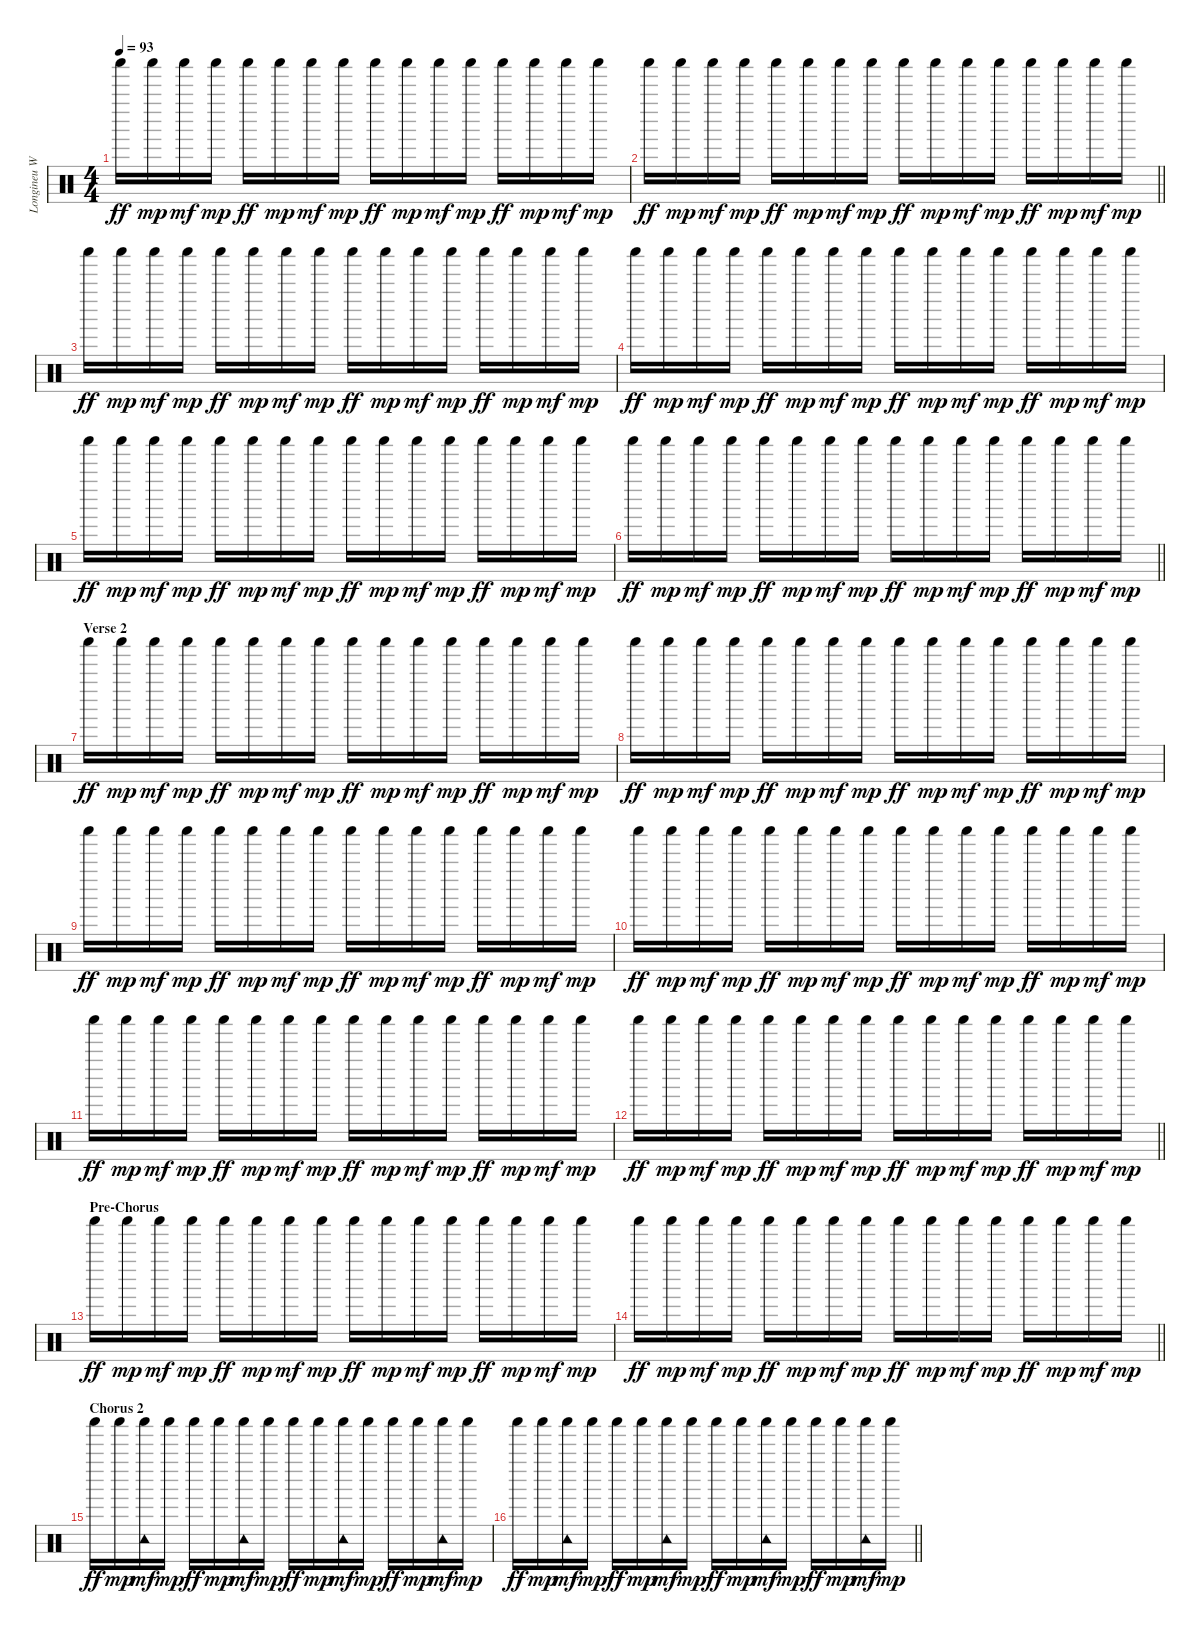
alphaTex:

\track ("Longineu W. Parsons |||" "Longineu W") {instrument percussion}
\staff {score}
\articulation defaults
\ts (4 4)
\tempo 93
\clef neutral
\ks c "Shaker (hit)".16{dy ff} "Shaker (hit)".16{dy mp} "Shaker (hit)".16{dy mf} "Shaker (hit)".16{dy mp} "Shaker (hit)".16{dy ff} "Shaker (hit)".16{dy mp} "Shaker (hit)".16{dy mf} "Shaker (hit)".16{dy mp} "Shaker (hit)".16{dy ff} "Shaker (hit)".16{dy mp} "Shaker (hit)".16{dy mf} "Shaker (hit)".16{dy mp} "Shaker (hit)".16{dy ff} "Shaker (hit)".16{dy mp} "Shaker (hit)".16{dy mf} "Shaker (hit)".16{dy mp}
|
\barLineRight lightlight "Shaker (hit)".16{dy ff} "Shaker (hit)".16{dy mp} "Shaker (hit)".16{dy mf} "Shaker (hit)".16{dy mp} "Shaker (hit)".16{dy ff} "Shaker (hit)".16{dy mp} "Shaker (hit)".16{dy mf} "Shaker (hit)".16{dy mp} "Shaker (hit)".16{dy ff} "Shaker (hit)".16{dy mp} "Shaker (hit)".16{dy mf} "Shaker (hit)".16{dy mp} "Shaker (hit)".16{dy ff} "Shaker (hit)".16{dy mp} "Shaker (hit)".16{dy mf} "Shaker (hit)".16{dy mp}
|
"Shaker (hit)".16{dy ff} "Shaker (hit)".16{dy mp} "Shaker (hit)".16{dy mf} "Shaker (hit)".16{dy mp} "Shaker (hit)".16{dy ff} "Shaker (hit)".16{dy mp} "Shaker (hit)".16{dy mf} "Shaker (hit)".16{dy mp} "Shaker (hit)".16{dy ff} "Shaker (hit)".16{dy mp} "Shaker (hit)".16{dy mf} "Shaker (hit)".16{dy mp} "Shaker (hit)".16{dy ff} "Shaker (hit)".16{dy mp} "Shaker (hit)".16{dy mf} "Shaker (hit)".16{dy mp} |
"Shaker (hit)".16{dy ff} "Shaker (hit)".16{dy mp} "Shaker (hit)".16{dy mf} "Shaker (hit)".16{dy mp} "Shaker (hit)".16{dy ff} "Shaker (hit)".16{dy mp} "Shaker (hit)".16{dy mf} "Shaker (hit)".16{dy mp} "Shaker (hit)".16{dy ff} "Shaker (hit)".16{dy mp} "Shaker (hit)".16{dy mf} "Shaker (hit)".16{dy mp} "Shaker (hit)".16{dy ff} "Shaker (hit)".16{dy mp} "Shaker (hit)".16{dy mf} "Shaker (hit)".16{dy mp} |
"Shaker (hit)".16{dy ff} "Shaker (hit)".16{dy mp} "Shaker (hit)".16{dy mf} "Shaker (hit)".16{dy mp} "Shaker (hit)".16{dy ff} "Shaker (hit)".16{dy mp} "Shaker (hit)".16{dy mf} "Shaker (hit)".16{dy mp} "Shaker (hit)".16{dy ff} "Shaker (hit)".16{dy mp} "Shaker (hit)".16{dy mf} "Shaker (hit)".16{dy mp} "Shaker (hit)".16{dy ff} "Shaker (hit)".16{dy mp} "Shaker (hit)".16{dy mf} "Shaker (hit)".16{dy mp} |
\barLineRight lightlight "Shaker (hit)".16{dy ff} "Shaker (hit)".16{dy mp} "Shaker (hit)".16{dy mf} "Shaker (hit)".16{dy mp} "Shaker (hit)".16{dy ff} "Shaker (hit)".16{dy mp} "Shaker (hit)".16{dy mf} "Shaker (hit)".16{dy mp} "Shaker (hit)".16{dy ff} "Shaker (hit)".16{dy mp} "Shaker (hit)".16{dy mf} "Shaker (hit)".16{dy mp} "Shaker (hit)".16{dy ff} "Shaker (hit)".16{dy mp} "Shaker (hit)".16{dy mf} "Shaker (hit)".16{dy mp}
|
\section ("" "Verse 2")
"Shaker (hit)".16{dy ff} "Shaker (hit)".16{dy mp} "Shaker (hit)".16{dy mf} "Shaker (hit)".16{dy mp} "Shaker (hit)".16{dy ff} "Shaker (hit)".16{dy mp} "Shaker (hit)".16{dy mf} "Shaker (hit)".16{dy mp} "Shaker (hit)".16{dy ff} "Shaker (hit)".16{dy mp} "Shaker (hit)".16{dy mf} "Shaker (hit)".16{dy mp} "Shaker (hit)".16{dy ff} "Shaker (hit)".16{dy mp} "Shaker (hit)".16{dy mf} "Shaker (hit)".16{dy mp} |
"Shaker (hit)".16{dy ff} "Shaker (hit)".16{dy mp} "Shaker (hit)".16{dy mf} "Shaker (hit)".16{dy mp} "Shaker (hit)".16{dy ff} "Shaker (hit)".16{dy mp} "Shaker (hit)".16{dy mf} "Shaker (hit)".16{dy mp} "Shaker (hit)".16{dy ff} "Shaker (hit)".16{dy mp} "Shaker (hit)".16{dy mf} "Shaker (hit)".16{dy mp} "Shaker (hit)".16{dy ff} "Shaker (hit)".16{dy mp} "Shaker (hit)".16{dy mf} "Shaker (hit)".16{dy mp} |
"Shaker (hit)".16{dy ff} "Shaker (hit)".16{dy mp} "Shaker (hit)".16{dy mf} "Shaker (hit)".16{dy mp} "Shaker (hit)".16{dy ff} "Shaker (hit)".16{dy mp} "Shaker (hit)".16{dy mf} "Shaker (hit)".16{dy mp} "Shaker (hit)".16{dy ff} "Shaker (hit)".16{dy mp} "Shaker (hit)".16{dy mf} "Shaker (hit)".16{dy mp} "Shaker (hit)".16{dy ff} "Shaker (hit)".16{dy mp} "Shaker (hit)".16{dy mf} "Shaker (hit)".16{dy mp} |
"Shaker (hit)".16{dy ff} "Shaker (hit)".16{dy mp} "Shaker (hit)".16{dy mf} "Shaker (hit)".16{dy mp} "Shaker (hit)".16{dy ff} "Shaker (hit)".16{dy mp} "Shaker (hit)".16{dy mf} "Shaker (hit)".16{dy mp} "Shaker (hit)".16{dy ff} "Shaker (hit)".16{dy mp} "Shaker (hit)".16{dy mf} "Shaker (hit)".16{dy mp} "Shaker (hit)".16{dy ff} "Shaker (hit)".16{dy mp} "Shaker (hit)".16{dy mf} "Shaker (hit)".16{dy mp} |
"Shaker (hit)".16{dy ff} "Shaker (hit)".16{dy mp} "Shaker (hit)".16{dy mf} "Shaker (hit)".16{dy mp} "Shaker (hit)".16{dy ff} "Shaker (hit)".16{dy mp} "Shaker (hit)".16{dy mf} "Shaker (hit)".16{dy mp} "Shaker (hit)".16{dy ff} "Shaker (hit)".16{dy mp} "Shaker (hit)".16{dy mf} "Shaker (hit)".16{dy mp} "Shaker (hit)".16{dy ff} "Shaker (hit)".16{dy mp} "Shaker (hit)".16{dy mf} "Shaker (hit)".16{dy mp} |
\barLineRight lightlight "Shaker (hit)".16{dy ff} "Shaker (hit)".16{dy mp} "Shaker (hit)".16{dy mf} "Shaker (hit)".16{dy mp} "Shaker (hit)".16{dy ff} "Shaker (hit)".16{dy mp} "Shaker (hit)".16{dy mf} "Shaker (hit)".16{dy mp} "Shaker (hit)".16{dy ff} "Shaker (hit)".16{dy mp} "Shaker (hit)".16{dy mf} "Shaker (hit)".16{dy mp} "Shaker (hit)".16{dy ff} "Shaker (hit)".16{dy mp} "Shaker (hit)".16{dy mf} "Shaker (hit)".16{dy mp}
|
\section ("" "Pre-Chorus")
"Shaker (hit)".16{dy ff} "Shaker (hit)".16{dy mp} "Shaker (hit)".16{dy mf} "Shaker (hit)".16{dy mp} "Shaker (hit)".16{dy ff} "Shaker (hit)".16{dy mp} "Shaker (hit)".16{dy mf} "Shaker (hit)".16{dy mp} "Shaker (hit)".16{dy ff} "Shaker (hit)".16{dy mp} "Shaker (hit)".16{dy mf} "Shaker (hit)".16{dy mp} "Shaker (hit)".16{dy ff} "Shaker (hit)".16{dy mp} "Shaker (hit)".16{dy mf} "Shaker (hit)".16{dy mp} |
\barLineRight lightlight "Shaker (hit)".16{dy ff} "Shaker (hit)".16{dy mp} "Shaker (hit)".16{dy mf} "Shaker (hit)".16{dy mp} "Shaker (hit)".16{dy ff} "Shaker (hit)".16{dy mp} "Shaker (hit)".16{dy mf} "Shaker (hit)".16{dy mp} "Shaker (hit)".16{dy ff} "Shaker (hit)".16{dy mp} "Shaker (hit)".16{dy mf} "Shaker (hit)".16{dy mp} "Shaker (hit)".16{dy ff} "Shaker (hit)".16{dy mp} "Shaker (hit)".16{dy mf} "Shaker (hit)".16{dy mp}
|
\section ("" "Chorus 2")
"Shaker (hit)".16{dy ff} "Shaker (hit)".16{dy mp} ("Tambourine (hit)" "Shaker (hit)").16{dy mf} "Shaker (hit)".16{dy mp} "Shaker (hit)".16{dy ff} "Shaker (hit)".16{dy mp} ("Tambourine (hit)" "Shaker (hit)").16{dy mf} "Shaker (hit)".16{dy mp} "Shaker (hit)".16{dy ff} "Shaker (hit)".16{dy mp} ("Tambourine (hit)" "Shaker (hit)").16{dy mf} "Shaker (hit)".16{dy mp} "Shaker (hit)".16{dy ff} "Shaker (hit)".16{dy mp} ("Tambourine (hit)" "Shaker (hit)").16{dy mf} "Shaker (hit)".16{dy mp} |
\barLineRight lightlight "Shaker (hit)".16{dy ff} "Shaker (hit)".16{dy mp}
("Tambourine (hit)" "Shaker (hit)").16{dy mf} "Shaker (hit)".16{dy mp} "Shaker (hit)".16{dy ff} "Shaker (hit)".16{dy mp} ("Tambourine (hit)" "Shaker (hit)").16{dy mf} "Shaker (hit)".16{dy mp} "Shaker (hit)".16{dy ff} "Shaker (hit)".16{dy mp} ("Tambourine (hit)" "Shaker (hit)").16{dy mf} "Shaker (hit)".16{dy mp} "Shaker (hit)".16{dy ff} "Shaker (hit)".16{dy mp} ("Tambourine (hit)" "Shaker (hit)").16{dy mf} "Shaker (hit)".16{dy mp}
